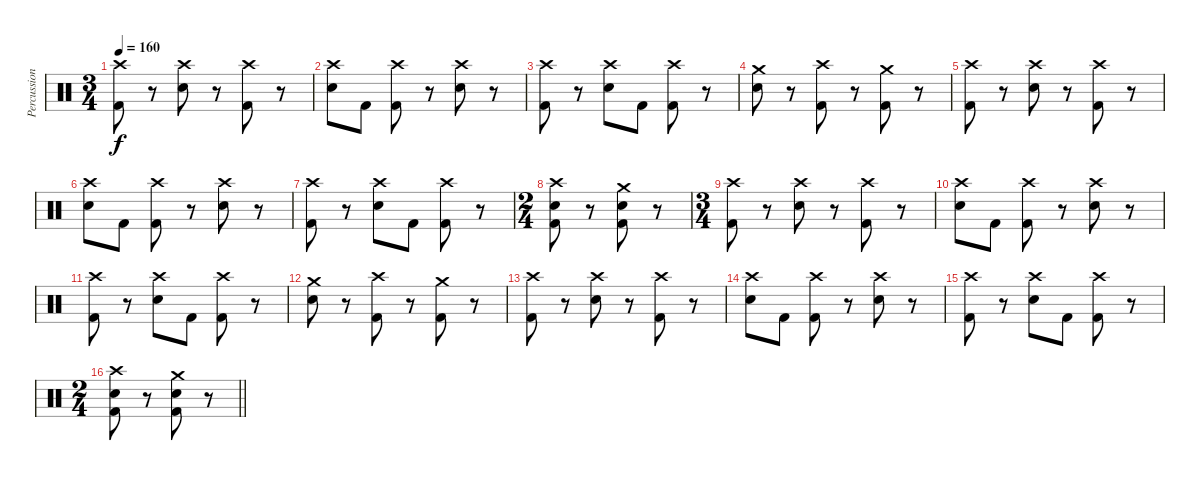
\track ("Percussion" "Percussion") {instrument percussion}
\staff {score}
\articulation defaults
\ts (3 4)
\section ("" "")
\tempo 160
\clef neutral
\ks c
("Crash high (hit)" "Kick (hit) 2").8{dy f} r.8 ("Crash high (hit)" "Snare (hit) 2").8 r.8 ("Crash high (hit)" "Kick (hit) 2").8 r.8 |
("Crash high (hit)" "Snare (hit) 2").8 "Kick (hit) 2".8 ("Crash high (hit)" "Kick (hit) 2").8 r.8 ("Crash high (hit)" "Snare (hit) 2").8 r.8 |
("Crash high (hit)" "Kick (hit) 2").8 r.8 ("Crash high (hit)" "Snare (hit) 2").8 "Kick (hit) 2".8 ("Crash high (hit)" "Kick (hit) 2").8 r.8 |
("Crash medium (hit)" "Snare (hit) 2").8 r.8 ("Crash high (hit)" "Kick (hit) 2").8 r.8 ("Crash medium (hit)" "Kick (hit) 2").8 r.8 |
("Crash high (hit)" "Kick (hit) 2").8 r.8 ("Crash high (hit)" "Snare (hit) 2").8 r.8 ("Crash high (hit)" "Kick (hit) 2").8 r.8 |
("Crash high (hit)" "Snare (hit) 2").8 "Kick (hit) 2".8 ("Crash high (hit)" "Kick (hit) 2").8 r.8 ("Crash high (hit)" "Snare (hit) 2").8 r.8 |
("Crash high (hit)" "Kick (hit) 2").8 r.8 ("Crash high (hit)" "Snare (hit) 2").8 "Kick (hit) 2".8 ("Crash high (hit)" "Kick (hit) 2").8 r.8 |
\ts (2 4)
("Crash high (hit)" "Snare (hit) 2" "Kick (hit) 2").8 r.8 ("Crash medium (hit)" "Snare (hit) 2" "Kick (hit) 2").8 r.8 |
\ts (3 4)
("Crash high (hit)" "Kick (hit) 2").8 r.8 ("Crash high (hit)" "Snare (hit) 2").8 r.8 ("Crash high (hit)" "Kick (hit) 2").8 r.8 |
("Crash high (hit)" "Snare (hit) 2").8 "Kick (hit) 2".8 ("Crash high (hit)" "Kick (hit) 2").8 r.8 ("Crash high (hit)" "Snare (hit) 2").8 r.8 |
("Crash high (hit)" "Kick (hit) 2").8 r.8 ("Crash high (hit)" "Snare (hit) 2").8 "Kick (hit) 2".8 ("Crash high (hit)" "Kick (hit) 2").8 r.8 |
("Crash medium (hit)" "Snare (hit) 2").8 r.8 ("Crash high (hit)" "Kick (hit) 2").8 r.8 ("Crash medium (hit)" "Kick (hit) 2").8 r.8 |
("Crash high (hit)" "Kick (hit) 2").8 r.8 ("Crash high (hit)" "Snare (hit) 2").8 r.8 ("Crash high (hit)" "Kick (hit) 2").8 r.8 |
("Crash high (hit)" "Snare (hit) 2").8 "Kick (hit) 2".8 ("Crash high (hit)" "Kick (hit) 2").8 r.8 ("Crash high (hit)" "Snare (hit) 2").8 r.8 |
("Crash high (hit)" "Kick (hit) 2").8 r.8 ("Crash high (hit)" "Snare (hit) 2").8 "Kick (hit) 2".8 ("Crash high (hit)" "Kick (hit) 2").8 r.8 |
\ts (2 4)
\barLineRight lightlight
("Crash high (hit)" "Snare (hit) 2" "Kick (hit) 2").8 r.8 ("Crash medium (hit)" "Snare (hit) 2" "Kick (hit) 2").8 r.8
